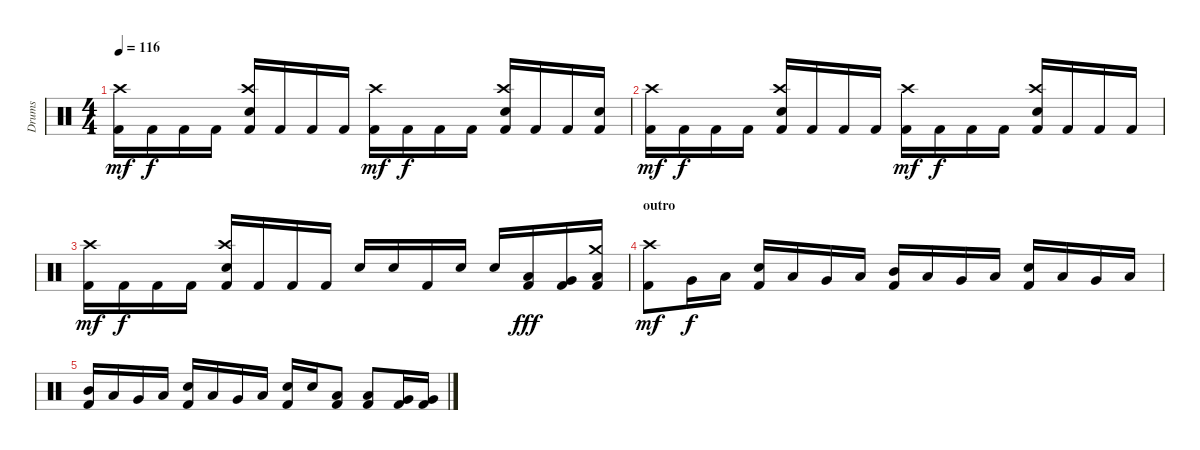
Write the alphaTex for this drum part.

\track ("Drums" "Drums") {instrument percussion}
\staff {score}
\articulation defaults
\ts (4 4)
\tempo 116
\clef neutral
\ks c
("Kick (hit) 2" "Crash high (hit)").16{dy mf} "Kick (hit) 2".16{dy f} "Kick (hit) 2".16 "Kick (hit) 2".16 ("Kick (hit) 2" "Crash high (hit)" "Electric Snare (hit)").16 "Kick (hit) 2".16 "Kick (hit) 2".16 "Kick (hit) 2".16 ("Kick (hit) 2" "Crash high (hit)").16{dy mf} "Kick (hit) 2".16{dy f} "Kick (hit) 2".16 "Kick (hit) 2".16 ("Kick (hit) 2" "Crash high (hit)" "Electric Snare (hit)").16 "Kick (hit) 2".16 "Kick (hit) 2".16 ("Kick (hit) 2" "Electric Snare (hit)").16 |
("Kick (hit) 2" "Crash high (hit)").16{dy mf} "Kick (hit) 2".16{dy f} "Kick (hit) 2".16 "Kick (hit) 2".16 ("Kick (hit) 2" "Crash high (hit)" "Electric Snare (hit)").16 "Kick (hit) 2".16 "Kick (hit) 2".16 "Kick (hit) 2".16 ("Kick (hit) 2" "Crash high (hit)").16{dy mf} "Kick (hit) 2".16{dy f} "Kick (hit) 2".16 "Kick (hit) 2".16 ("Kick (hit) 2" "Crash high (hit)" "Electric Snare (hit)").16 "Kick (hit) 2".16 "Kick (hit) 2".16 "Kick (hit) 2".16 |
("Kick (hit) 2" "Crash high (hit)").16{dy mf} "Kick (hit) 2".16{dy f} "Kick (hit) 2".16 "Kick (hit) 2".16 ("Kick (hit) 2" "Crash high (hit)" "Electric Snare (hit)").16 "Kick (hit) 2".16 "Kick (hit) 2".16 "Kick (hit) 2".16 "Electric Snare (hit)".16 "Electric Snare (hit)".16 "Kick (hit) 2".16 "Electric Snare (hit)".16 "Electric Snare (hit)".16 ("Kick (hit) 2" "Low Tom (hit)").16{dy fff} ("Kick (hit) 2" "Very Low Tom (hit)").16 ("Kick (hit) 2" "Crash medium (hit)" "Low Floor Tom (hit)").16 |
\section ("" "outro")
("Kick (hit) 2" "Crash high (hit)").8{dy mf} "Very Low Tom (hit)".16{dy f} "Low Floor Tom (hit)".16 ("Kick (hit) 2" "Electric Snare (hit)").16 "Low Tom (hit)".16 "Very Low Tom (hit)".16 "Low Floor Tom (hit)".16 ("Kick (hit) 2" "Mid Tom (hit)").16 "Low Tom (hit)".16 "Very Low Tom (hit)".16 "Low Floor Tom (hit)".16 ("Kick (hit) 2" "Electric Snare (hit)").16 "Low Tom (hit)".16 "Very Low Tom (hit)".16 "Low Floor Tom (hit)".16 |
("Kick (hit) 2" "Mid Tom (hit)").16 "Low Tom (hit)".16 "Very Low Tom (hit)".16 "Low Floor Tom (hit)".16 ("Kick (hit) 2" "Electric Snare (hit)").16 "Low Tom (hit)".16 "Very Low Tom (hit)".16 "Low Floor Tom (hit)".16 ("Kick (hit) 2" "Electric Snare (hit)").16 "Electric Snare (hit)".16 ("Kick (hit) 2" "Low Tom (hit)").8 ("Kick (hit) 2" "Low Floor Tom (hit)").8 ("Kick (hit) 2" "Very Low Tom (hit)").16 ("Kick (hit) 2" "Very Low Tom (hit)").16
